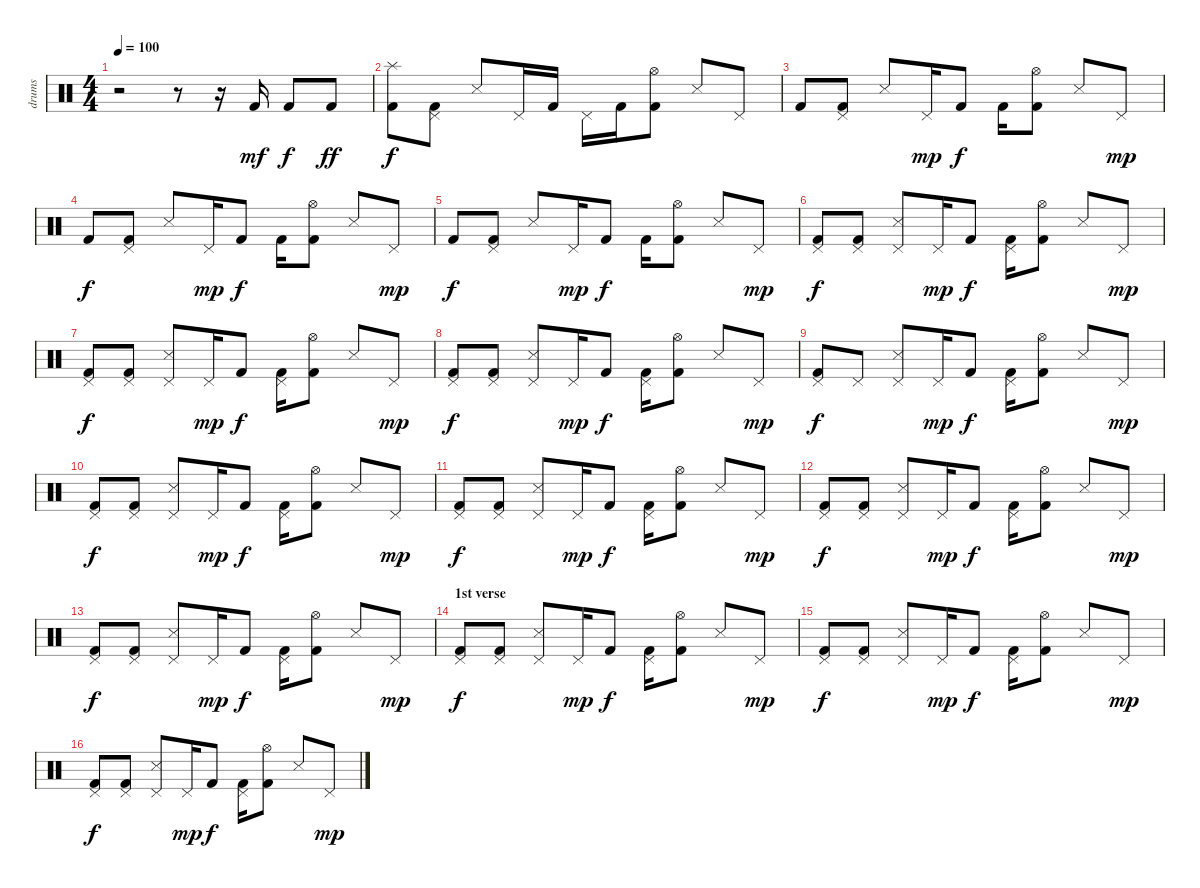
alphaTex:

\track ("drums" "drums") {instrument percussion}
\staff {score}
\articulation defaults
\ts (4 4)
\tempo 100
\clef neutral
\ks c
r.2{dy mf} r.8 r.16 "Kick (hit) 2".16 "Kick (hit) 2".8{dy f} "Kick (hit) 2".8{dy ff} |
("Splash (hit)" "Kick (hit) 2").8{dy f} ("Pedal Hi-Hat (hit)" "Kick (hit) 2").8 "Snare (side stick) 3".8 "Pedal Hi-Hat (hit)".16 "Kick (hit) 2".16 "Pedal Hi-Hat (hit)".16 "Kick (hit) 2".16 ("Hi-Hat (open)" "Kick (hit) 2").8 "Snare (side stick) 3".8 "Pedal Hi-Hat (hit)".8 |
"Kick (hit) 2".8 ("Pedal Hi-Hat (hit)" "Kick (hit) 2").8 "Snare (side stick) 3".8 "Pedal Hi-Hat (hit)".16{dy mp} "Kick (hit) 2".8{dy f} "Kick (hit) 2".16 ("Hi-Hat (open)" "Kick (hit) 2").8 "Snare (side stick) 3".8 "Pedal Hi-Hat (hit)".8{dy mp} |
"Kick (hit) 2".8{dy f} ("Pedal Hi-Hat (hit)" "Kick (hit) 2").8 "Snare (side stick) 3".8 "Pedal Hi-Hat (hit)".16{dy mp} "Kick (hit) 2".8{dy f} "Kick (hit) 2".16 ("Hi-Hat (open)" "Kick (hit) 2").8 "Snare (side stick) 3".8 "Pedal Hi-Hat (hit)".8{dy mp} |
"Kick (hit) 2".8{dy f} ("Pedal Hi-Hat (hit)" "Kick (hit) 2").8 "Snare (side stick) 3".8 "Pedal Hi-Hat (hit)".16{dy mp} "Kick (hit) 2".8{dy f} "Kick (hit) 2".16 ("Hi-Hat (open)" "Kick (hit) 2").8 "Snare (side stick) 3".8 "Pedal Hi-Hat (hit)".8{dy mp} |
("Pedal Hi-Hat (hit)" "Kick (hit) 2").8{dy f} ("Pedal Hi-Hat (hit)" "Kick (hit) 2").8 ("Pedal Hi-Hat (hit)" "Snare (side stick) 3").8 "Pedal Hi-Hat (hit)".16{dy mp} "Kick (hit) 2".8{dy f} ("Pedal Hi-Hat (hit)" "Kick (hit) 2").16 ("Hi-Hat (open)" "Kick (hit) 2").8 "Snare (side stick) 3".8 "Pedal Hi-Hat (hit)".8{dy mp} |
("Pedal Hi-Hat (hit)" "Kick (hit) 2").8{dy f} ("Pedal Hi-Hat (hit)" "Kick (hit) 2").8 ("Pedal Hi-Hat (hit)" "Snare (side stick) 3").8 "Pedal Hi-Hat (hit)".16{dy mp} "Kick (hit) 2".8{dy f} ("Pedal Hi-Hat (hit)" "Kick (hit) 2").16 ("Hi-Hat (open)" "Kick (hit) 2").8 "Snare (side stick) 3".8 "Pedal Hi-Hat (hit)".8{dy mp} |
("Pedal Hi-Hat (hit)" "Kick (hit) 2").8{dy f} ("Pedal Hi-Hat (hit)" "Kick (hit) 2").8 ("Pedal Hi-Hat (hit)" "Snare (side stick) 3").8 "Pedal Hi-Hat (hit)".16{dy mp} "Kick (hit) 2".8{dy f} ("Pedal Hi-Hat (hit)" "Kick (hit) 2").16 ("Hi-Hat (open)" "Kick (hit) 2").8 "Snare (side stick) 3".8 "Pedal Hi-Hat (hit)".8{dy mp} |
("Pedal Hi-Hat (hit)" "Kick (hit) 2").8{dy f} "Pedal Hi-Hat (hit)".8 ("Pedal Hi-Hat (hit)" "Snare (side stick) 3").8 "Pedal Hi-Hat (hit)".16{dy mp} "Kick (hit) 2".8{dy f} ("Pedal Hi-Hat (hit)" "Kick (hit) 2").16 ("Hi-Hat (open)" "Kick (hit) 2").8 "Snare (side stick) 3".8 "Pedal Hi-Hat (hit)".8{dy mp} |
("Pedal Hi-Hat (hit)" "Kick (hit) 2").8{dy f} ("Pedal Hi-Hat (hit)" "Kick (hit) 2").8 ("Pedal Hi-Hat (hit)" "Snare (side stick) 3").8 "Pedal Hi-Hat (hit)".16{dy mp} "Kick (hit) 2".8{dy f} ("Pedal Hi-Hat (hit)" "Kick (hit) 2").16 ("Hi-Hat (open)" "Kick (hit) 2").8 "Snare (side stick) 3".8 "Pedal Hi-Hat (hit)".8{dy mp} |
("Pedal Hi-Hat (hit)" "Kick (hit) 2").8{dy f} ("Pedal Hi-Hat (hit)" "Kick (hit) 2").8 ("Pedal Hi-Hat (hit)" "Snare (side stick) 3").8 "Pedal Hi-Hat (hit)".16{dy mp} "Kick (hit) 2".8{dy f} ("Pedal Hi-Hat (hit)" "Kick (hit) 2").16 ("Hi-Hat (open)" "Kick (hit) 2").8 "Snare (side stick) 3".8 "Pedal Hi-Hat (hit)".8{dy mp} |
("Pedal Hi-Hat (hit)" "Kick (hit) 2").8{dy f} ("Pedal Hi-Hat (hit)" "Kick (hit) 2").8 ("Pedal Hi-Hat (hit)" "Snare (side stick) 3").8 "Pedal Hi-Hat (hit)".16{dy mp} "Kick (hit) 2".8{dy f} ("Pedal Hi-Hat (hit)" "Kick (hit) 2").16 ("Hi-Hat (open)" "Kick (hit) 2").8 "Snare (side stick) 3".8 "Pedal Hi-Hat (hit)".8{dy mp} |
("Pedal Hi-Hat (hit)" "Kick (hit) 2").8{dy f} ("Pedal Hi-Hat (hit)" "Kick (hit) 2").8 ("Pedal Hi-Hat (hit)" "Snare (side stick) 3").8 "Pedal Hi-Hat (hit)".16{dy mp} "Kick (hit) 2".8{dy f} ("Pedal Hi-Hat (hit)" "Kick (hit) 2").16 ("Hi-Hat (open)" "Kick (hit) 2").8 "Snare (side stick) 3".8 "Pedal Hi-Hat (hit)".8{dy mp} |
\section ("" "1st verse")
("Pedal Hi-Hat (hit)" "Kick (hit) 2").8{dy f} ("Pedal Hi-Hat (hit)" "Kick (hit) 2").8 ("Pedal Hi-Hat (hit)" "Snare (side stick) 3").8 "Pedal Hi-Hat (hit)".16{dy mp} "Kick (hit) 2".8{dy f} ("Pedal Hi-Hat (hit)" "Kick (hit) 2").16 ("Hi-Hat (open)" "Kick (hit) 2").8 "Snare (side stick) 3".8 "Pedal Hi-Hat (hit)".8{dy mp} |
("Pedal Hi-Hat (hit)" "Kick (hit) 2").8{dy f} ("Pedal Hi-Hat (hit)" "Kick (hit) 2").8 ("Pedal Hi-Hat (hit)" "Snare (side stick) 3").8 "Pedal Hi-Hat (hit)".16{dy mp} "Kick (hit) 2".8{dy f} ("Pedal Hi-Hat (hit)" "Kick (hit) 2").16 ("Hi-Hat (open)" "Kick (hit) 2").8 "Snare (side stick) 3".8 "Pedal Hi-Hat (hit)".8{dy mp} |
("Pedal Hi-Hat (hit)" "Kick (hit) 2").8{dy f} ("Pedal Hi-Hat (hit)" "Kick (hit) 2").8 ("Pedal Hi-Hat (hit)" "Snare (side stick) 3").8 "Pedal Hi-Hat (hit)".16{dy mp} "Kick (hit) 2".8{dy f} ("Pedal Hi-Hat (hit)" "Kick (hit) 2").16 ("Hi-Hat (open)" "Kick (hit) 2").8 "Snare (side stick) 3".8 "Pedal Hi-Hat (hit)".8{dy mp}
